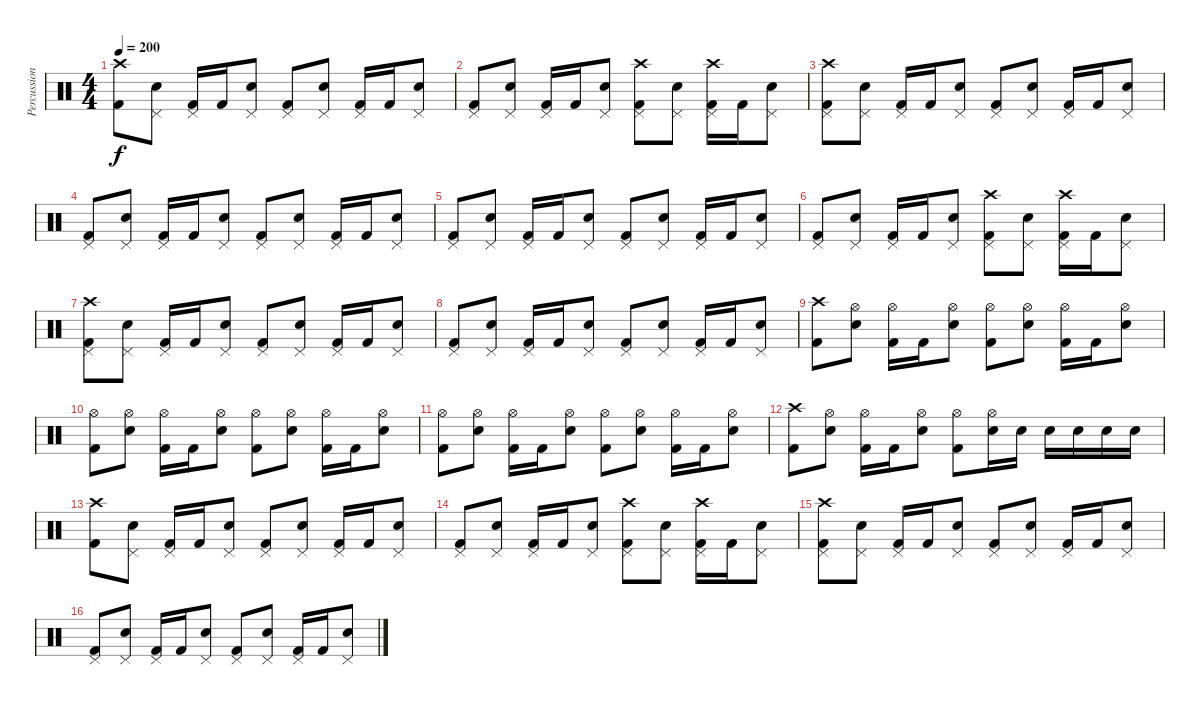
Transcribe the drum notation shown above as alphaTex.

\track ("Percussions" "Percussion") {instrument percussion}
\staff {score}
\articulation defaults
\ts (4 4)
\tempo 200
\clef neutral
\ks c
("Crash high (hit)" "Kick (hit) 2").8{dy f} ("Pedal Hi-Hat (hit)" "Electric Snare (hit)").8 ("Pedal Hi-Hat (hit)" "Kick (hit) 2").16 "Kick (hit) 2".16 ("Pedal Hi-Hat (hit)" "Electric Snare (hit)").8 ("Pedal Hi-Hat (hit)" "Kick (hit) 2").8 ("Pedal Hi-Hat (hit)" "Electric Snare (hit)").8 ("Pedal Hi-Hat (hit)" "Kick (hit) 2").16 "Kick (hit) 2".16 ("Pedal Hi-Hat (hit)" "Electric Snare (hit)").8 |
("Pedal Hi-Hat (hit)" "Kick (hit) 2").8 ("Pedal Hi-Hat (hit)" "Electric Snare (hit)").8 ("Pedal Hi-Hat (hit)" "Kick (hit) 2").16 "Kick (hit) 2".16 ("Pedal Hi-Hat (hit)" "Electric Snare (hit)").8 ("Crash high (hit)" "Pedal Hi-Hat (hit)" "Kick (hit) 2").8 ("Pedal Hi-Hat (hit)" "Electric Snare (hit)").8 ("Crash high (hit)" "Pedal Hi-Hat (hit)" "Kick (hit) 2").16 "Kick (hit) 2".16 ("Pedal Hi-Hat (hit)" "Electric Snare (hit)").8 |
("Crash high (hit)" "Pedal Hi-Hat (hit)" "Kick (hit) 2").8 ("Pedal Hi-Hat (hit)" "Electric Snare (hit)").8 ("Pedal Hi-Hat (hit)" "Kick (hit) 2").16 "Kick (hit) 2".16 ("Pedal Hi-Hat (hit)" "Electric Snare (hit)").8 ("Pedal Hi-Hat (hit)" "Kick (hit) 2").8 ("Pedal Hi-Hat (hit)" "Electric Snare (hit)").8 ("Pedal Hi-Hat (hit)" "Kick (hit) 2").16 "Kick (hit) 2".16 ("Pedal Hi-Hat (hit)" "Electric Snare (hit)").8 |
("Pedal Hi-Hat (hit)" "Kick (hit) 2").8 ("Pedal Hi-Hat (hit)" "Electric Snare (hit)").8 ("Pedal Hi-Hat (hit)" "Kick (hit) 2").16 "Kick (hit) 2".16 ("Pedal Hi-Hat (hit)" "Electric Snare (hit)").8 ("Pedal Hi-Hat (hit)" "Kick (hit) 2").8 ("Pedal Hi-Hat (hit)" "Electric Snare (hit)").8 ("Pedal Hi-Hat (hit)" "Kick (hit) 2").16 "Kick (hit) 2".16 ("Pedal Hi-Hat (hit)" "Electric Snare (hit)").8 |
("Pedal Hi-Hat (hit)" "Kick (hit) 2").8 ("Pedal Hi-Hat (hit)" "Electric Snare (hit)").8 ("Pedal Hi-Hat (hit)" "Kick (hit) 2").16 "Kick (hit) 2".16 ("Pedal Hi-Hat (hit)" "Electric Snare (hit)").8 ("Pedal Hi-Hat (hit)" "Kick (hit) 2").8 ("Pedal Hi-Hat (hit)" "Electric Snare (hit)").8 ("Pedal Hi-Hat (hit)" "Kick (hit) 2").16 "Kick (hit) 2".16 ("Pedal Hi-Hat (hit)" "Electric Snare (hit)").8 |
("Pedal Hi-Hat (hit)" "Kick (hit) 2").8 ("Pedal Hi-Hat (hit)" "Electric Snare (hit)").8 ("Pedal Hi-Hat (hit)" "Kick (hit) 2").16 "Kick (hit) 2".16 ("Pedal Hi-Hat (hit)" "Electric Snare (hit)").8 ("Crash high (hit)" "Pedal Hi-Hat (hit)" "Kick (hit) 2").8 ("Pedal Hi-Hat (hit)" "Electric Snare (hit)").8 ("Crash high (hit)" "Pedal Hi-Hat (hit)" "Kick (hit) 2").16 "Kick (hit) 2".16 ("Pedal Hi-Hat (hit)" "Electric Snare (hit)").8 |
("Crash high (hit)" "Pedal Hi-Hat (hit)" "Kick (hit) 2").8 ("Pedal Hi-Hat (hit)" "Electric Snare (hit)").8 ("Pedal Hi-Hat (hit)" "Kick (hit) 2").16 "Kick (hit) 2".16 ("Pedal Hi-Hat (hit)" "Electric Snare (hit)").8 ("Pedal Hi-Hat (hit)" "Kick (hit) 2").8 ("Pedal Hi-Hat (hit)" "Electric Snare (hit)").8 ("Pedal Hi-Hat (hit)" "Kick (hit) 2").16 "Kick (hit) 2".16 ("Pedal Hi-Hat (hit)" "Electric Snare (hit)").8 |
("Pedal Hi-Hat (hit)" "Kick (hit) 2").8 ("Pedal Hi-Hat (hit)" "Electric Snare (hit)").8 ("Pedal Hi-Hat (hit)" "Kick (hit) 2").16 "Kick (hit) 2".16 ("Pedal Hi-Hat (hit)" "Electric Snare (hit)").8 ("Pedal Hi-Hat (hit)" "Kick (hit) 2").8 ("Pedal Hi-Hat (hit)" "Electric Snare (hit)").8 ("Pedal Hi-Hat (hit)" "Kick (hit) 2").16 "Kick (hit) 2".16 ("Pedal Hi-Hat (hit)" "Electric Snare (hit)").8 |
("Crash high (hit)" "Kick (hit) 2").8 ("Hi-Hat (open)" "Electric Snare (hit)").8 ("Hi-Hat (open)" "Kick (hit) 2").16 "Kick (hit) 2".16 ("Hi-Hat (open)" "Electric Snare (hit)").8 ("Hi-Hat (open)" "Kick (hit) 2").8 ("Hi-Hat (open)" "Electric Snare (hit)").8 ("Hi-Hat (open)" "Kick (hit) 2").16 "Kick (hit) 2".16 ("Hi-Hat (open)" "Electric Snare (hit)").8 |
("Hi-Hat (open)" "Kick (hit) 2").8 ("Hi-Hat (open)" "Electric Snare (hit)").8 ("Hi-Hat (open)" "Kick (hit) 2").16 "Kick (hit) 2".16 ("Hi-Hat (open)" "Electric Snare (hit)").8 ("Hi-Hat (open)" "Kick (hit) 2").8 ("Hi-Hat (open)" "Electric Snare (hit)").8 ("Hi-Hat (open)" "Kick (hit) 2").16 "Kick (hit) 2".16 ("Hi-Hat (open)" "Electric Snare (hit)").8 |
("Hi-Hat (open)" "Kick (hit) 2").8 ("Hi-Hat (open)" "Electric Snare (hit)").8 ("Hi-Hat (open)" "Kick (hit) 2").16 "Kick (hit) 2".16 ("Hi-Hat (open)" "Electric Snare (hit)").8 ("Hi-Hat (open)" "Kick (hit) 2").8 ("Hi-Hat (open)" "Electric Snare (hit)").8 ("Hi-Hat (open)" "Kick (hit) 2").16 "Kick (hit) 2".16 ("Hi-Hat (open)" "Electric Snare (hit)").8 |
("Crash high (hit)" "Kick (hit) 2").8 ("Hi-Hat (open)" "Electric Snare (hit)").8 ("Hi-Hat (open)" "Kick (hit) 2").16 "Kick (hit) 2".16 ("Hi-Hat (open)" "Electric Snare (hit)").8 ("Hi-Hat (open)" "Kick (hit) 2").8 ("Hi-Hat (open)" "Electric Snare (hit)").16 "Electric Snare (hit)".16 "Electric Snare (hit)".16 "Electric Snare (hit)".16 "Electric Snare (hit)".16 "Electric Snare (hit)".16 |
("Crash high (hit)" "Kick (hit) 2").8 ("Pedal Hi-Hat (hit)" "Electric Snare (hit)").8 ("Pedal Hi-Hat (hit)" "Kick (hit) 2").16 "Kick (hit) 2".16 ("Pedal Hi-Hat (hit)" "Electric Snare (hit)").8 ("Pedal Hi-Hat (hit)" "Kick (hit) 2").8 ("Pedal Hi-Hat (hit)" "Electric Snare (hit)").8 ("Pedal Hi-Hat (hit)" "Kick (hit) 2").16 "Kick (hit) 2".16 ("Pedal Hi-Hat (hit)" "Electric Snare (hit)").8 |
("Pedal Hi-Hat (hit)" "Kick (hit) 2").8 ("Pedal Hi-Hat (hit)" "Electric Snare (hit)").8 ("Pedal Hi-Hat (hit)" "Kick (hit) 2").16 "Kick (hit) 2".16 ("Pedal Hi-Hat (hit)" "Electric Snare (hit)").8 ("Crash high (hit)" "Pedal Hi-Hat (hit)" "Kick (hit) 2").8 ("Pedal Hi-Hat (hit)" "Electric Snare (hit)").8 ("Crash high (hit)" "Pedal Hi-Hat (hit)" "Kick (hit) 2").16 "Kick (hit) 2".16 ("Pedal Hi-Hat (hit)" "Electric Snare (hit)").8 |
("Crash high (hit)" "Pedal Hi-Hat (hit)" "Kick (hit) 2").8 ("Pedal Hi-Hat (hit)" "Electric Snare (hit)").8 ("Pedal Hi-Hat (hit)" "Kick (hit) 2").16 "Kick (hit) 2".16 ("Pedal Hi-Hat (hit)" "Electric Snare (hit)").8 ("Pedal Hi-Hat (hit)" "Kick (hit) 2").8 ("Pedal Hi-Hat (hit)" "Electric Snare (hit)").8 ("Pedal Hi-Hat (hit)" "Kick (hit) 2").16 "Kick (hit) 2".16 ("Pedal Hi-Hat (hit)" "Electric Snare (hit)").8 |
("Pedal Hi-Hat (hit)" "Kick (hit) 2").8 ("Pedal Hi-Hat (hit)" "Electric Snare (hit)").8 ("Pedal Hi-Hat (hit)" "Kick (hit) 2").16 "Kick (hit) 2".16 ("Pedal Hi-Hat (hit)" "Electric Snare (hit)").8 ("Pedal Hi-Hat (hit)" "Kick (hit) 2").8 ("Pedal Hi-Hat (hit)" "Electric Snare (hit)").8 ("Pedal Hi-Hat (hit)" "Kick (hit) 2").16 "Kick (hit) 2".16 ("Pedal Hi-Hat (hit)" "Electric Snare (hit)").8
